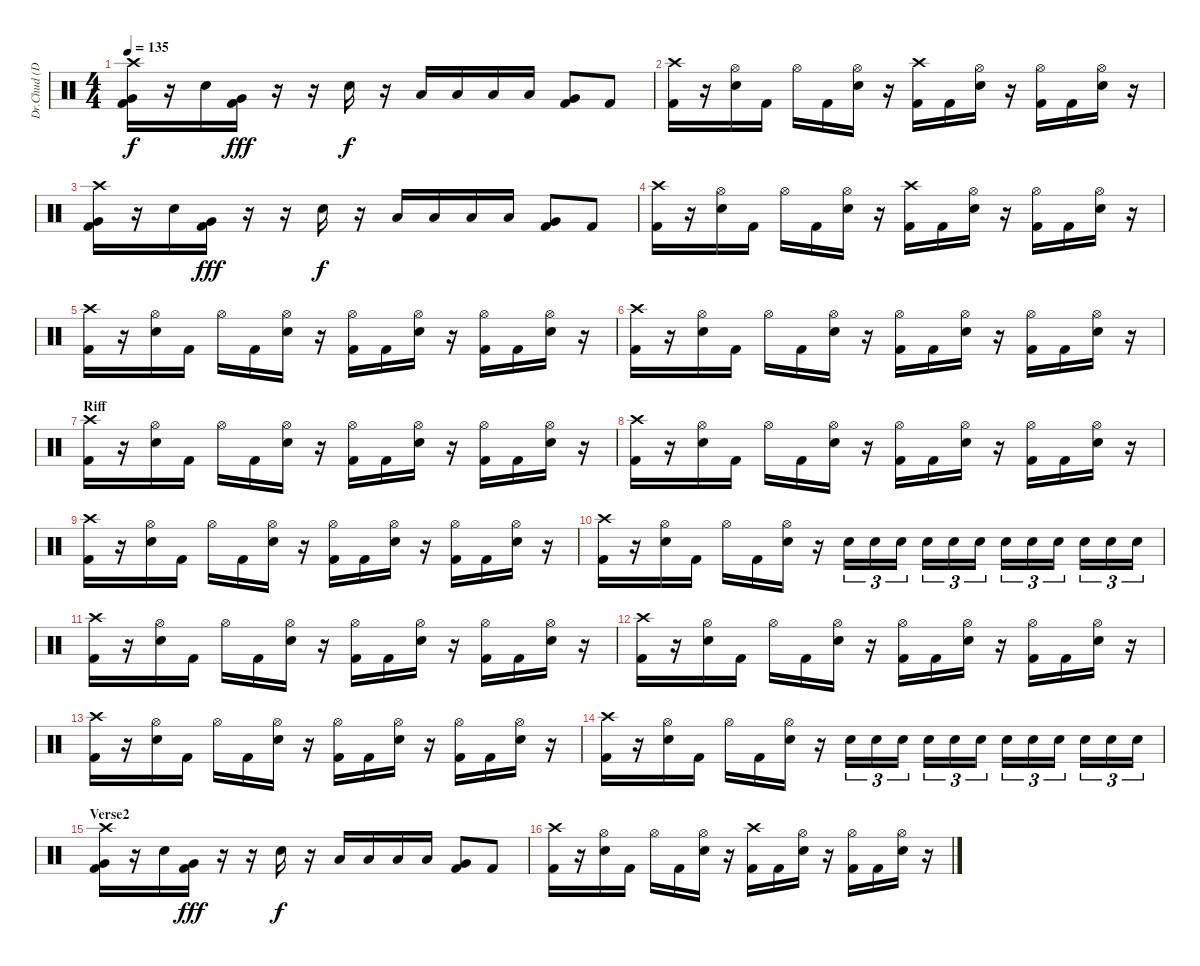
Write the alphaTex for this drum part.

\track ("Dr.Chud (Drums)" "Dr.Chud (D") {instrument percussion}
\staff {score}
\articulation defaults
\ts (4 4)
\tempo 135
\clef neutral
\ks c
("Crash high (hit)" "Very Low Tom (hit)" "Kick (hit) 2").16{dy f} r.16 "Snare (hit) 2".16 ("Very Low Tom (hit)" "Kick (hit) 2").16{dy fff} r.16 r.16 "Snare (hit) 2".16{dy f} r.16 "Low Tom (hit)".16 "Low Tom (hit)".16 "Low Tom (hit)".16 "Low Tom (hit)".16 ("Very Low Tom (hit)" "Kick (hit) 2").8 "Kick (hit) 2".8 |
("Crash high (hit)" "Kick (hit) 2").16 r.16 ("Hi-Hat (open)" "Snare (hit) 2").16 "Kick (hit) 2".16 "Hi-Hat (open)".16 "Kick (hit) 2".16 ("Hi-Hat (open)" "Snare (hit) 2").16 r.16 ("Crash high (hit)" "Kick (hit) 2").16 "Kick (hit) 2".16 ("Hi-Hat (open)" "Snare (hit) 2").16 r.16 ("Hi-Hat (open)" "Kick (hit) 2").16 "Kick (hit) 2".16 ("Hi-Hat (open)" "Snare (hit) 2").16 r.16 |
("Crash high (hit)" "Very Low Tom (hit)" "Kick (hit) 2").16 r.16 "Snare (hit) 2".16 ("Very Low Tom (hit)" "Kick (hit) 2").16{dy fff} r.16 r.16 "Snare (hit) 2".16{dy f} r.16 "Low Tom (hit)".16 "Low Tom (hit)".16 "Low Tom (hit)".16 "Low Tom (hit)".16 ("Very Low Tom (hit)" "Kick (hit) 2").8 "Kick (hit) 2".8 |
("Crash high (hit)" "Kick (hit) 2").16 r.16 ("Hi-Hat (open)" "Snare (hit) 2").16 "Kick (hit) 2".16 "Hi-Hat (open)".16 "Kick (hit) 2".16 ("Hi-Hat (open)" "Snare (hit) 2").16 r.16 ("Crash high (hit)" "Kick (hit) 2").16 "Kick (hit) 2".16 ("Hi-Hat (open)" "Snare (hit) 2").16 r.16 ("Hi-Hat (open)" "Kick (hit) 2").16 "Kick (hit) 2".16 ("Hi-Hat (open)" "Snare (hit) 2").16 r.16 |
("Crash high (hit)" "Kick (hit) 2").16 r.16 ("Hi-Hat (open)" "Snare (hit) 2").16 "Kick (hit) 2".16 "Hi-Hat (open)".16 "Kick (hit) 2".16 ("Hi-Hat (open)" "Snare (hit) 2").16 r.16 ("Hi-Hat (open)" "Kick (hit) 2").16 "Kick (hit) 2".16 ("Hi-Hat (open)" "Snare (hit) 2").16 r.16 ("Hi-Hat (open)" "Kick (hit) 2").16 "Kick (hit) 2".16 ("Hi-Hat (open)" "Snare (hit) 2").16 r.16 |
("Crash high (hit)" "Kick (hit) 2").16 r.16 ("Hi-Hat (open)" "Snare (hit) 2").16 "Kick (hit) 2".16 "Hi-Hat (open)".16 "Kick (hit) 2".16 ("Hi-Hat (open)" "Snare (hit) 2").16 r.16 ("Hi-Hat (open)" "Kick (hit) 2").16 "Kick (hit) 2".16 ("Hi-Hat (open)" "Snare (hit) 2").16 r.16 ("Hi-Hat (open)" "Kick (hit) 2").16 "Kick (hit) 2".16 ("Hi-Hat (open)" "Snare (hit) 2").16 r.16 |
\section ("" "Riff")
("Crash high (hit)" "Kick (hit) 2").16 r.16 ("Hi-Hat (open)" "Snare (hit) 2").16 "Kick (hit) 2".16 "Hi-Hat (open)".16 "Kick (hit) 2".16 ("Hi-Hat (open)" "Snare (hit) 2").16 r.16 ("Hi-Hat (open)" "Kick (hit) 2").16 "Kick (hit) 2".16 ("Hi-Hat (open)" "Snare (hit) 2").16 r.16 ("Hi-Hat (open)" "Kick (hit) 2").16 "Kick (hit) 2".16 ("Hi-Hat (open)" "Snare (hit) 2").16 r.16 |
("Crash high (hit)" "Kick (hit) 2").16 r.16 ("Hi-Hat (open)" "Snare (hit) 2").16 "Kick (hit) 2".16 "Hi-Hat (open)".16 "Kick (hit) 2".16 ("Hi-Hat (open)" "Snare (hit) 2").16 r.16 ("Hi-Hat (open)" "Kick (hit) 2").16 "Kick (hit) 2".16 ("Hi-Hat (open)" "Snare (hit) 2").16 r.16 ("Hi-Hat (open)" "Kick (hit) 2").16 "Kick (hit) 2".16 ("Hi-Hat (open)" "Snare (hit) 2").16 r.16 |
("Crash high (hit)" "Kick (hit) 2").16 r.16 ("Hi-Hat (open)" "Snare (hit) 2").16 "Kick (hit) 2".16 "Hi-Hat (open)".16 "Kick (hit) 2".16 ("Hi-Hat (open)" "Snare (hit) 2").16 r.16 ("Hi-Hat (open)" "Kick (hit) 2").16 "Kick (hit) 2".16 ("Hi-Hat (open)" "Snare (hit) 2").16 r.16 ("Hi-Hat (open)" "Kick (hit) 2").16 "Kick (hit) 2".16 ("Hi-Hat (open)" "Snare (hit) 2").16 r.16 |
("Crash high (hit)" "Kick (hit) 2").16 r.16 ("Hi-Hat (open)" "Snare (hit) 2").16 "Kick (hit) 2".16 "Hi-Hat (open)".16 "Kick (hit) 2".16 ("Hi-Hat (open)" "Snare (hit) 2").16 r.16 "Snare (hit) 2".16{tu (3 2)} "Snare (hit) 2".16{tu (3 2)} "Snare (hit) 2".16{tu (3 2)} "Snare (hit) 2".16{tu (3 2)} "Snare (hit) 2".16{tu (3 2)} "Snare (hit) 2".16{tu (3 2)} "Snare (hit) 2".16{tu (3 2)} "Snare (hit) 2".16{tu (3 2)} "Snare (hit) 2".16{tu (3 2)} "Snare (hit) 2".16{tu (3 2)} "Snare (hit) 2".16{tu (3 2)} "Snare (hit) 2".16{tu (3 2)} |
("Crash high (hit)" "Kick (hit) 2").16 r.16 ("Hi-Hat (open)" "Snare (hit) 2").16 "Kick (hit) 2".16 "Hi-Hat (open)".16 "Kick (hit) 2".16 ("Hi-Hat (open)" "Snare (hit) 2").16 r.16 ("Hi-Hat (open)" "Kick (hit) 2").16 "Kick (hit) 2".16 ("Hi-Hat (open)" "Snare (hit) 2").16 r.16 ("Hi-Hat (open)" "Kick (hit) 2").16 "Kick (hit) 2".16 ("Hi-Hat (open)" "Snare (hit) 2").16 r.16 |
("Crash high (hit)" "Kick (hit) 2").16 r.16 ("Hi-Hat (open)" "Snare (hit) 2").16 "Kick (hit) 2".16 "Hi-Hat (open)".16 "Kick (hit) 2".16 ("Hi-Hat (open)" "Snare (hit) 2").16 r.16 ("Hi-Hat (open)" "Kick (hit) 2").16 "Kick (hit) 2".16 ("Hi-Hat (open)" "Snare (hit) 2").16 r.16 ("Hi-Hat (open)" "Kick (hit) 2").16 "Kick (hit) 2".16 ("Hi-Hat (open)" "Snare (hit) 2").16 r.16 |
("Crash high (hit)" "Kick (hit) 2").16 r.16 ("Hi-Hat (open)" "Snare (hit) 2").16 "Kick (hit) 2".16 "Hi-Hat (open)".16 "Kick (hit) 2".16 ("Hi-Hat (open)" "Snare (hit) 2").16 r.16 ("Hi-Hat (open)" "Kick (hit) 2").16 "Kick (hit) 2".16 ("Hi-Hat (open)" "Snare (hit) 2").16 r.16 ("Hi-Hat (open)" "Kick (hit) 2").16 "Kick (hit) 2".16 ("Hi-Hat (open)" "Snare (hit) 2").16 r.16 |
("Crash high (hit)" "Kick (hit) 2").16 r.16 ("Hi-Hat (open)" "Snare (hit) 2").16 "Kick (hit) 2".16 "Hi-Hat (open)".16 "Kick (hit) 2".16 ("Hi-Hat (open)" "Snare (hit) 2").16 r.16 "Snare (hit) 2".16{tu (3 2)} "Snare (hit) 2".16{tu (3 2)} "Snare (hit) 2".16{tu (3 2)} "Snare (hit) 2".16{tu (3 2)} "Snare (hit) 2".16{tu (3 2)} "Snare (hit) 2".16{tu (3 2)} "Snare (hit) 2".16{tu (3 2)} "Snare (hit) 2".16{tu (3 2)} "Snare (hit) 2".16{tu (3 2)} "Snare (hit) 2".16{tu (3 2)} "Snare (hit) 2".16{tu (3 2)} "Snare (hit) 2".16{tu (3 2)} |
\section ("" "Verse2")
("Crash high (hit)" "Very Low Tom (hit)" "Kick (hit) 2").16 r.16 "Snare (hit) 2".16 ("Very Low Tom (hit)" "Kick (hit) 2").16{dy fff} r.16 r.16 "Snare (hit) 2".16{dy f} r.16 "Low Tom (hit)".16 "Low Tom (hit)".16 "Low Tom (hit)".16 "Low Tom (hit)".16 ("Very Low Tom (hit)" "Kick (hit) 2").8 "Kick (hit) 2".8 |
("Crash high (hit)" "Kick (hit) 2").16 r.16 ("Hi-Hat (open)" "Snare (hit) 2").16 "Kick (hit) 2".16 "Hi-Hat (open)".16 "Kick (hit) 2".16 ("Hi-Hat (open)" "Snare (hit) 2").16 r.16 ("Crash high (hit)" "Kick (hit) 2").16 "Kick (hit) 2".16 ("Hi-Hat (open)" "Snare (hit) 2").16 r.16 ("Hi-Hat (open)" "Kick (hit) 2").16 "Kick (hit) 2".16 ("Hi-Hat (open)" "Snare (hit) 2").16 r.16
